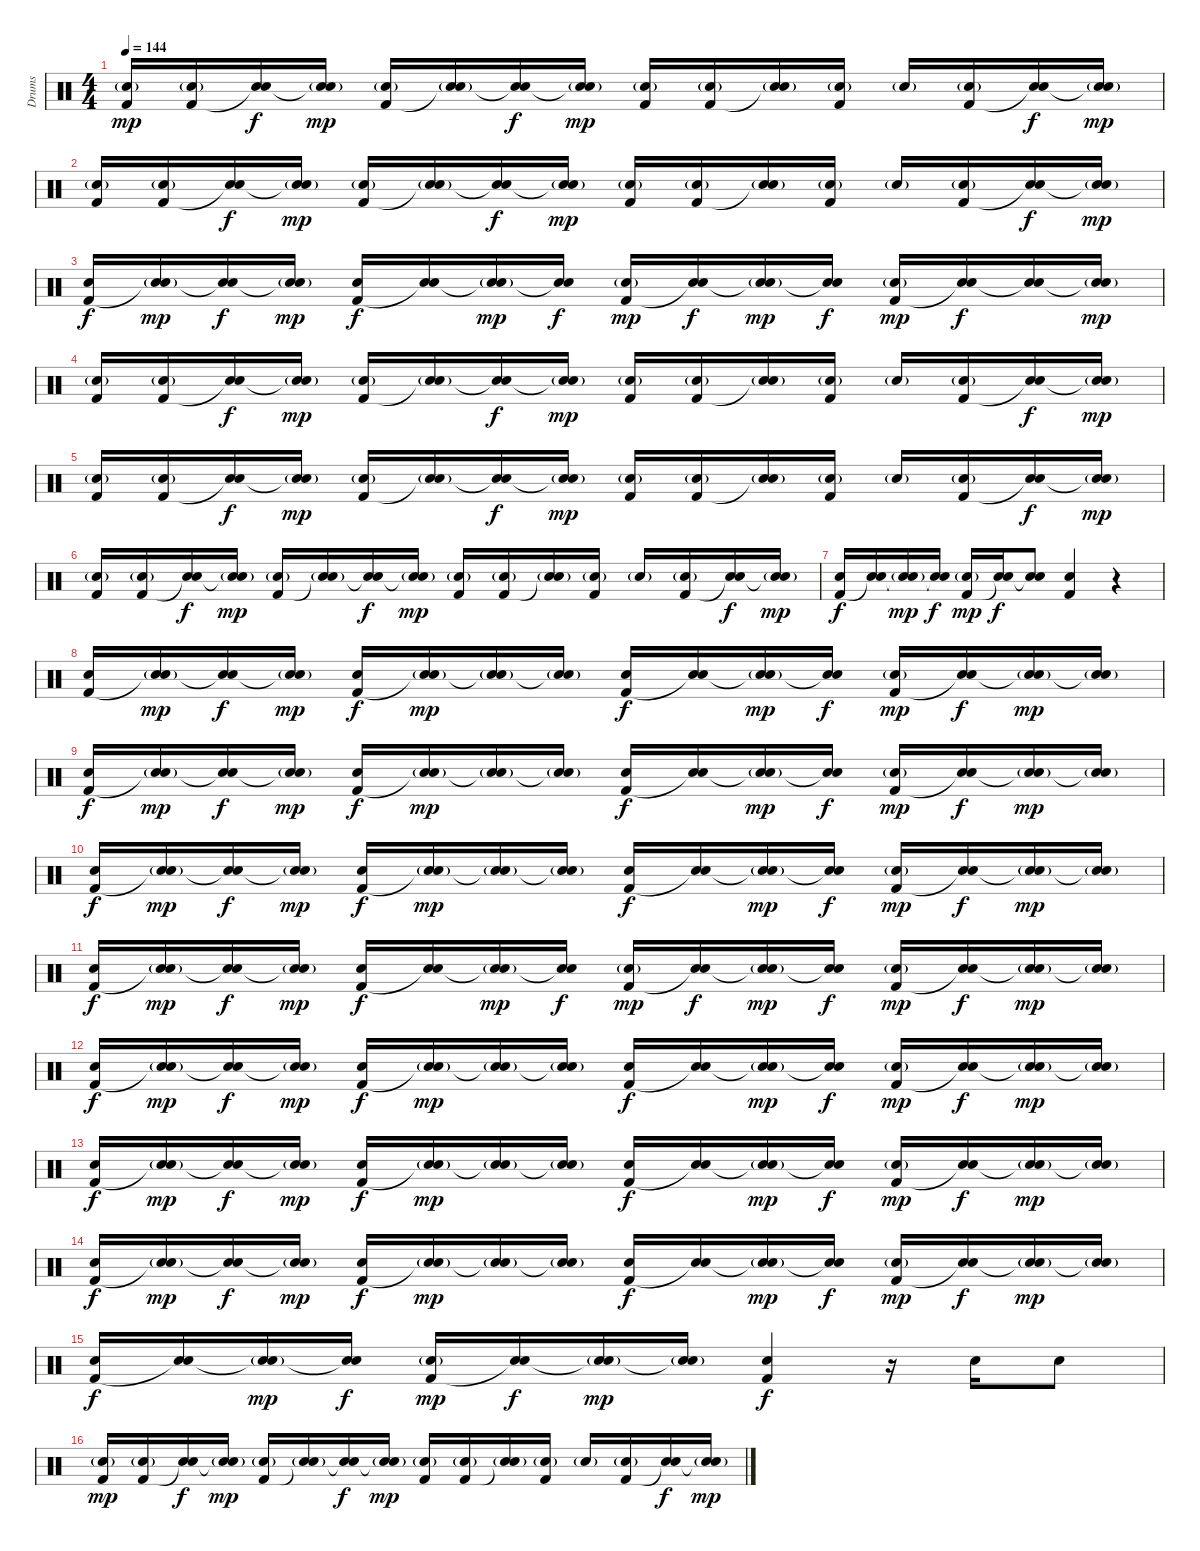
\track ("Drums" "Drums") {instrument percussion}
\staff {score}
\articulation defaults
\ts (4 4)
\tempo 144
\clef neutral
\ks c
("Snare (hit) 2"{g} "Kick (hit) 2").16{dy mp} ("Snare (hit) 2"{g} "Kick (hit) 2").16 ("Snare (hit) 2" "Snare (hit)"{t}).16{dy f} ("Snare (hit) 2"{g} "Snare (hit)"{t}).16{dy mp} ("Snare (hit) 2"{g} "Kick (hit) 2").16 ("Snare (hit) 2"{g} "Snare (hit)"{t}).16 ("Snare (hit) 2" "Snare (hit)"{t}).16{dy f} ("Snare (hit) 2"{g} "Snare (hit)"{t}).16{dy mp} ("Snare (hit) 2"{g} "Kick (hit) 2").16 ("Snare (hit) 2"{g} "Kick (hit) 2").16 ("Snare (hit) 2"{g} "Snare (hit)"{t}).16 ("Snare (hit) 2"{g} "Kick (hit) 2").16 "Snare (hit) 2"{g}.16 ("Snare (hit) 2"{g} "Kick (hit) 2").16 ("Snare (hit) 2" "Snare (hit)"{t}).16{dy f} ("Snare (hit) 2"{g} "Snare (hit)"{t}).16{dy mp} |
("Snare (hit) 2"{g} "Kick (hit) 2").16 ("Snare (hit) 2"{g} "Kick (hit) 2").16 ("Snare (hit) 2" "Snare (hit)"{t}).16{dy f} ("Snare (hit) 2"{g} "Snare (hit)"{t}).16{dy mp} ("Snare (hit) 2"{g} "Kick (hit) 2").16 ("Snare (hit) 2"{g} "Snare (hit)"{t}).16 ("Snare (hit) 2" "Snare (hit)"{t}).16{dy f} ("Snare (hit) 2"{g} "Snare (hit)"{t}).16{dy mp} ("Snare (hit) 2"{g} "Kick (hit) 2").16 ("Snare (hit) 2"{g} "Kick (hit) 2").16 ("Snare (hit) 2"{g} "Snare (hit)"{t}).16 ("Snare (hit) 2"{g} "Kick (hit) 2").16 "Snare (hit) 2"{g}.16 ("Snare (hit) 2"{g} "Kick (hit) 2").16 ("Snare (hit) 2" "Snare (hit)"{t}).16{dy f} ("Snare (hit) 2"{g} "Snare (hit)"{t}).16{dy mp} |
("Snare (hit) 2" "Kick (hit) 2").16{dy f} ("Snare (hit) 2"{g} "Snare (hit)"{t}).16{dy mp} ("Snare (hit) 2" "Snare (hit)"{t}).16{dy f} ("Snare (hit) 2"{g} "Snare (hit)"{t}).16{dy mp} ("Snare (hit) 2" "Kick (hit) 2").16{dy f} ("Snare (hit) 2" "Snare (hit)"{t}).16 ("Snare (hit) 2"{g} "Snare (hit)"{t}).16{dy mp} ("Snare (hit) 2" "Snare (hit)"{t}).16{dy f} ("Snare (hit) 2"{g} "Kick (hit) 2").16{dy mp} ("Snare (hit) 2" "Snare (hit)"{t}).16{dy f} ("Snare (hit) 2"{g} "Snare (hit)"{t}).16{dy mp} ("Snare (hit) 2" "Snare (hit)"{t}).16{dy f} ("Snare (hit) 2"{g} "Kick (hit) 2").16{dy mp} ("Snare (hit) 2" "Snare (hit)"{t}).16{dy f} ("Snare (hit) 2" "Snare (hit)"{t}).16 ("Snare (hit) 2"{g} "Snare (hit)"{t}).16{dy mp} |
("Snare (hit) 2"{g} "Kick (hit) 2").16 ("Snare (hit) 2"{g} "Kick (hit) 2").16 ("Snare (hit) 2" "Snare (hit)"{t}).16{dy f} ("Snare (hit) 2"{g} "Snare (hit)"{t}).16{dy mp} ("Snare (hit) 2"{g} "Kick (hit) 2").16 ("Snare (hit) 2"{g} "Snare (hit)"{t}).16 ("Snare (hit) 2" "Snare (hit)"{t}).16{dy f} ("Snare (hit) 2"{g} "Snare (hit)"{t}).16{dy mp} ("Snare (hit) 2"{g} "Kick (hit) 2").16 ("Snare (hit) 2"{g} "Kick (hit) 2").16 ("Snare (hit) 2"{g} "Snare (hit)"{t}).16 ("Snare (hit) 2"{g} "Kick (hit) 2").16 "Snare (hit) 2"{g}.16 ("Snare (hit) 2"{g} "Kick (hit) 2").16 ("Snare (hit) 2" "Snare (hit)"{t}).16{dy f} ("Snare (hit) 2"{g} "Snare (hit)"{t}).16{dy mp} |
("Snare (hit) 2"{g} "Kick (hit) 2").16 ("Snare (hit) 2"{g} "Kick (hit) 2").16 ("Snare (hit) 2" "Snare (hit)"{t}).16{dy f} ("Snare (hit) 2"{g} "Snare (hit)"{t}).16{dy mp} ("Snare (hit) 2"{g} "Kick (hit) 2").16 ("Snare (hit) 2"{g} "Snare (hit)"{t}).16 ("Snare (hit) 2" "Snare (hit)"{t}).16{dy f} ("Snare (hit) 2"{g} "Snare (hit)"{t}).16{dy mp} ("Snare (hit) 2"{g} "Kick (hit) 2").16 ("Snare (hit) 2"{g} "Kick (hit) 2").16 ("Snare (hit) 2"{g} "Snare (hit)"{t}).16 ("Snare (hit) 2"{g} "Kick (hit) 2").16 "Snare (hit) 2"{g}.16 ("Snare (hit) 2"{g} "Kick (hit) 2").16 ("Snare (hit) 2" "Snare (hit)"{t}).16{dy f} ("Snare (hit) 2"{g} "Snare (hit)"{t}).16{dy mp} |
("Snare (hit) 2"{g} "Kick (hit) 2").16 ("Snare (hit) 2"{g} "Kick (hit) 2").16 ("Snare (hit) 2" "Snare (hit)"{t}).16{dy f} ("Snare (hit) 2"{g} "Snare (hit)"{t}).16{dy mp} ("Snare (hit) 2"{g} "Kick (hit) 2").16 ("Snare (hit) 2"{g} "Snare (hit)"{t}).16 ("Snare (hit) 2" "Snare (hit)"{t}).16{dy f} ("Snare (hit) 2"{g} "Snare (hit)"{t}).16{dy mp} ("Snare (hit) 2"{g} "Kick (hit) 2").16 ("Snare (hit) 2"{g} "Kick (hit) 2").16 ("Snare (hit) 2"{g} "Snare (hit)"{t}).16 ("Snare (hit) 2"{g} "Kick (hit) 2").16 "Snare (hit) 2"{g}.16 ("Snare (hit) 2"{g} "Kick (hit) 2").16 ("Snare (hit) 2" "Snare (hit)"{t}).16{dy f} ("Snare (hit) 2"{g} "Snare (hit)"{t}).16{dy mp} |
("Snare (hit) 2" "Kick (hit) 2").16{dy f} ("Snare (hit) 2" "Snare (hit)"{t}).16 ("Snare (hit) 2"{g} "Snare (hit)"{t}).16{dy mp} ("Snare (hit) 2" "Snare (hit)"{t}).16{dy f} ("Snare (hit) 2"{g} "Kick (hit) 2").16{dy mp} ("Snare (hit) 2" "Snare (hit)"{t}).16{dy f} ("Snare (hit) 2" "Snare (hit)"{t}).8 ("Snare (hit) 2" "Kick (hit) 2").4 r.4 |
("Snare (hit) 2" "Kick (hit) 2").16 ("Snare (hit) 2"{g} "Snare (hit)"{t}).16{dy mp} ("Snare (hit) 2" "Snare (hit)"{t}).16{dy f} ("Snare (hit) 2"{g} "Snare (hit)"{t}).16{dy mp} ("Snare (hit) 2" "Kick (hit) 2").16{dy f} ("Snare (hit) 2"{g} "Snare (hit)"{t}).16{dy mp} ("Snare (hit) 2"{g} "Snare (hit)"{t}).16 ("Snare (hit) 2"{g} "Snare (hit)"{t}).16 ("Snare (hit) 2" "Kick (hit) 2").16{dy f} ("Snare (hit) 2" "Snare (hit)"{t}).16 ("Snare (hit) 2"{g} "Snare (hit)"{t}).16{dy mp} ("Snare (hit) 2" "Snare (hit)"{t}).16{dy f} ("Snare (hit) 2"{g} "Kick (hit) 2").16{dy mp} ("Snare (hit) 2" "Snare (hit)"{t}).16{dy f} ("Snare (hit) 2"{g} "Snare (hit)"{t}).16{dy mp} ("Snare (hit) 2"{g} "Snare (hit)"{t}).16 |
("Snare (hit) 2" "Kick (hit) 2").16{dy f} ("Snare (hit) 2"{g} "Snare (hit)"{t}).16{dy mp} ("Snare (hit) 2" "Snare (hit)"{t}).16{dy f} ("Snare (hit) 2"{g} "Snare (hit)"{t}).16{dy mp} ("Snare (hit) 2" "Kick (hit) 2").16{dy f} ("Snare (hit) 2"{g} "Snare (hit)"{t}).16{dy mp} ("Snare (hit) 2"{g} "Snare (hit)"{t}).16 ("Snare (hit) 2"{g} "Snare (hit)"{t}).16 ("Snare (hit) 2" "Kick (hit) 2").16{dy f} ("Snare (hit) 2" "Snare (hit)"{t}).16 ("Snare (hit) 2"{g} "Snare (hit)"{t}).16{dy mp} ("Snare (hit) 2" "Snare (hit)"{t}).16{dy f} ("Snare (hit) 2"{g} "Kick (hit) 2").16{dy mp} ("Snare (hit) 2" "Snare (hit)"{t}).16{dy f} ("Snare (hit) 2"{g} "Snare (hit)"{t}).16{dy mp} ("Snare (hit) 2"{g} "Snare (hit)"{t}).16 |
("Snare (hit) 2" "Kick (hit) 2").16{dy f} ("Snare (hit) 2"{g} "Snare (hit)"{t}).16{dy mp} ("Snare (hit) 2" "Snare (hit)"{t}).16{dy f} ("Snare (hit) 2"{g} "Snare (hit)"{t}).16{dy mp} ("Snare (hit) 2" "Kick (hit) 2").16{dy f} ("Snare (hit) 2"{g} "Snare (hit)"{t}).16{dy mp} ("Snare (hit) 2"{g} "Snare (hit)"{t}).16 ("Snare (hit) 2"{g} "Snare (hit)"{t}).16 ("Snare (hit) 2" "Kick (hit) 2").16{dy f} ("Snare (hit) 2" "Snare (hit)"{t}).16 ("Snare (hit) 2"{g} "Snare (hit)"{t}).16{dy mp} ("Snare (hit) 2" "Snare (hit)"{t}).16{dy f} ("Snare (hit) 2"{g} "Kick (hit) 2").16{dy mp} ("Snare (hit) 2" "Snare (hit)"{t}).16{dy f} ("Snare (hit) 2"{g} "Snare (hit)"{t}).16{dy mp} ("Snare (hit) 2"{g} "Snare (hit)"{t}).16 |
("Snare (hit) 2" "Kick (hit) 2").16{dy f} ("Snare (hit) 2"{g} "Snare (hit)"{t}).16{dy mp} ("Snare (hit) 2" "Snare (hit)"{t}).16{dy f} ("Snare (hit) 2"{g} "Snare (hit)"{t}).16{dy mp} ("Snare (hit) 2" "Kick (hit) 2").16{dy f} ("Snare (hit) 2" "Snare (hit)"{t}).16 ("Snare (hit) 2"{g} "Snare (hit)"{t}).16{dy mp} ("Snare (hit) 2" "Snare (hit)"{t}).16{dy f} ("Snare (hit) 2"{g} "Kick (hit) 2").16{dy mp} ("Snare (hit) 2" "Snare (hit)"{t}).16{dy f} ("Snare (hit) 2"{g} "Snare (hit)"{t}).16{dy mp} ("Snare (hit) 2" "Snare (hit)"{t}).16{dy f} ("Snare (hit) 2"{g} "Kick (hit) 2").16{dy mp} ("Snare (hit) 2" "Snare (hit)"{t}).16{dy f} ("Snare (hit) 2"{g} "Snare (hit)"{t}).16{dy mp} ("Snare (hit) 2"{g} "Snare (hit)"{t}).16 |
("Snare (hit) 2" "Kick (hit) 2").16{dy f} ("Snare (hit) 2"{g} "Snare (hit)"{t}).16{dy mp} ("Snare (hit) 2" "Snare (hit)"{t}).16{dy f} ("Snare (hit) 2"{g} "Snare (hit)"{t}).16{dy mp} ("Snare (hit) 2" "Kick (hit) 2").16{dy f} ("Snare (hit) 2"{g} "Snare (hit)"{t}).16{dy mp} ("Snare (hit) 2"{g} "Snare (hit)"{t}).16 ("Snare (hit) 2"{g} "Snare (hit)"{t}).16 ("Snare (hit) 2" "Kick (hit) 2").16{dy f} ("Snare (hit) 2" "Snare (hit)"{t}).16 ("Snare (hit) 2"{g} "Snare (hit)"{t}).16{dy mp} ("Snare (hit) 2" "Snare (hit)"{t}).16{dy f} ("Snare (hit) 2"{g} "Kick (hit) 2").16{dy mp} ("Snare (hit) 2" "Snare (hit)"{t}).16{dy f} ("Snare (hit) 2"{g} "Snare (hit)"{t}).16{dy mp} ("Snare (hit) 2"{g} "Snare (hit)"{t}).16 |
("Snare (hit) 2" "Kick (hit) 2").16{dy f} ("Snare (hit) 2"{g} "Snare (hit)"{t}).16{dy mp} ("Snare (hit) 2" "Snare (hit)"{t}).16{dy f} ("Snare (hit) 2"{g} "Snare (hit)"{t}).16{dy mp} ("Snare (hit) 2" "Kick (hit) 2").16{dy f} ("Snare (hit) 2"{g} "Snare (hit)"{t}).16{dy mp} ("Snare (hit) 2"{g} "Snare (hit)"{t}).16 ("Snare (hit) 2"{g} "Snare (hit)"{t}).16 ("Snare (hit) 2" "Kick (hit) 2").16{dy f} ("Snare (hit) 2" "Snare (hit)"{t}).16 ("Snare (hit) 2"{g} "Snare (hit)"{t}).16{dy mp} ("Snare (hit) 2" "Snare (hit)"{t}).16{dy f} ("Snare (hit) 2"{g} "Kick (hit) 2").16{dy mp} ("Snare (hit) 2" "Snare (hit)"{t}).16{dy f} ("Snare (hit) 2"{g} "Snare (hit)"{t}).16{dy mp} ("Snare (hit) 2"{g} "Snare (hit)"{t}).16 |
("Snare (hit) 2" "Kick (hit) 2").16{dy f} ("Snare (hit) 2"{g} "Snare (hit)"{t}).16{dy mp} ("Snare (hit) 2" "Snare (hit)"{t}).16{dy f} ("Snare (hit) 2"{g} "Snare (hit)"{t}).16{dy mp} ("Snare (hit) 2" "Kick (hit) 2").16{dy f} ("Snare (hit) 2"{g} "Snare (hit)"{t}).16{dy mp} ("Snare (hit) 2"{g} "Snare (hit)"{t}).16 ("Snare (hit) 2"{g} "Snare (hit)"{t}).16 ("Snare (hit) 2" "Kick (hit) 2").16{dy f} ("Snare (hit) 2" "Snare (hit)"{t}).16 ("Snare (hit) 2"{g} "Snare (hit)"{t}).16{dy mp} ("Snare (hit) 2" "Snare (hit)"{t}).16{dy f} ("Snare (hit) 2"{g} "Kick (hit) 2").16{dy mp} ("Snare (hit) 2" "Snare (hit)"{t}).16{dy f} ("Snare (hit) 2"{g} "Snare (hit)"{t}).16{dy mp} ("Snare (hit) 2"{g} "Snare (hit)"{t}).16 |
("Snare (hit) 2" "Kick (hit) 2").16{dy f} ("Snare (hit) 2" "Snare (hit)"{t}).16 ("Snare (hit) 2"{g} "Snare (hit)"{t}).16{dy mp} ("Snare (hit) 2" "Snare (hit)"{t}).16{dy f} ("Snare (hit) 2"{g} "Kick (hit) 2").16{dy mp} ("Snare (hit) 2" "Snare (hit)"{t}).16{dy f} ("Snare (hit) 2"{g} "Snare (hit)"{t}).16{dy mp} ("Snare (hit) 2"{g} "Snare (hit)"{t}).16 ("Snare (hit) 2" "Kick (hit) 2").4{dy f} r.16 "Snare (hit) 2".16 "Snare (hit) 2".8 |
("Snare (hit) 2"{g} "Kick (hit) 2").16{dy mp} ("Snare (hit) 2"{g} "Kick (hit) 2").16 ("Snare (hit) 2" "Snare (hit)"{t}).16{dy f} ("Snare (hit) 2"{g} "Snare (hit)"{t}).16{dy mp} ("Snare (hit) 2"{g} "Kick (hit) 2").16 ("Snare (hit) 2"{g} "Snare (hit)"{t}).16 ("Snare (hit) 2" "Snare (hit)"{t}).16{dy f} ("Snare (hit) 2"{g} "Snare (hit)"{t}).16{dy mp} ("Snare (hit) 2"{g} "Kick (hit) 2").16 ("Snare (hit) 2"{g} "Kick (hit) 2").16 ("Snare (hit) 2"{g} "Snare (hit)"{t}).16 ("Snare (hit) 2"{g} "Kick (hit) 2").16 "Snare (hit) 2"{g}.16 ("Snare (hit) 2"{g} "Kick (hit) 2").16 ("Snare (hit) 2" "Snare (hit)"{t}).16{dy f} ("Snare (hit) 2"{g} "Snare (hit)"{t}).16{dy mp}
